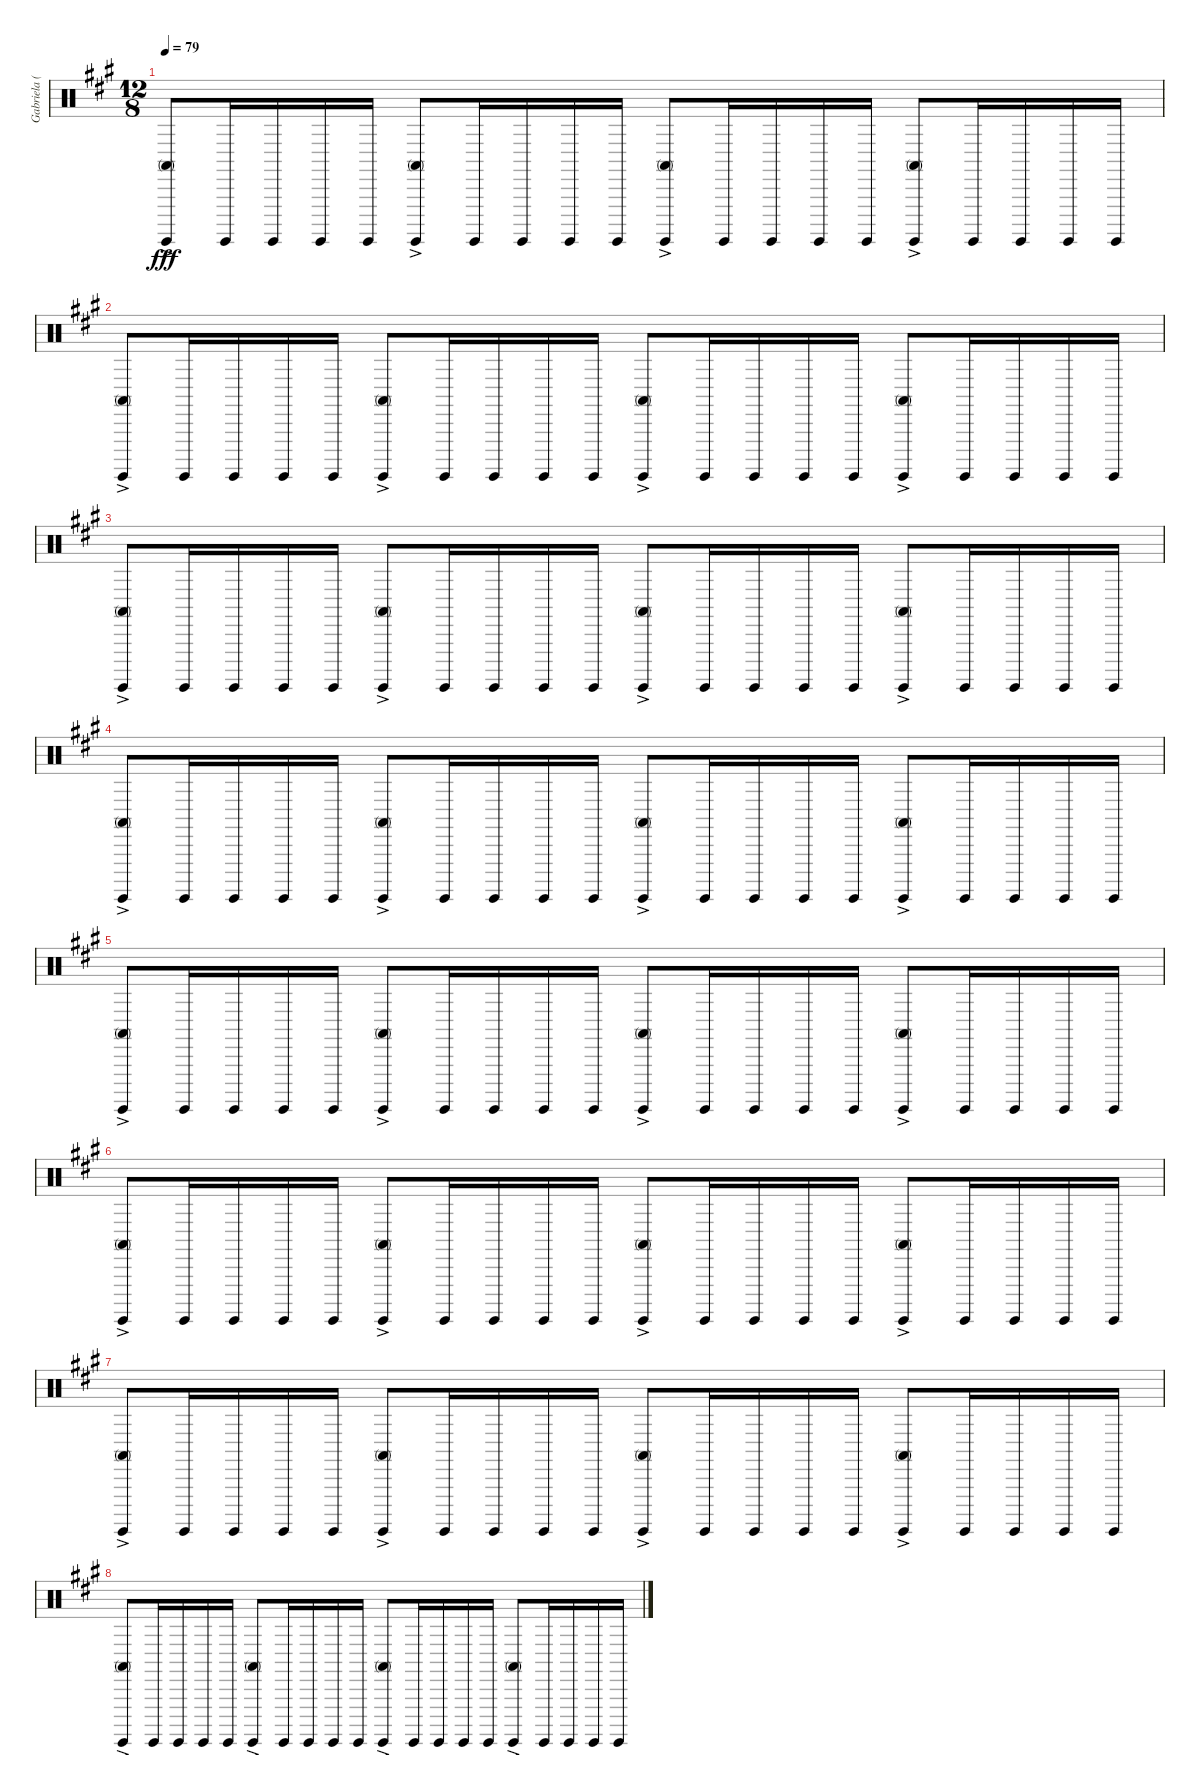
\track ("Gabriela (Percussion)" "Gabriela (") {instrument percussion}
\staff {score}
\articulation defaults
\ts (12 8)
\tempo 79
\clef neutral
\ks f#minor
("Conga high (mute)" "Surdo (hit)"{ac}).8{dy fff} "Surdo (hit)".16 "Surdo (hit)".16 "Surdo (hit)".16 "Surdo (hit)".16 ("Conga high (mute)" "Surdo (hit)"{ac}).8 "Surdo (hit)".16 "Surdo (hit)".16 "Surdo (hit)".16 "Surdo (hit)".16 ("Conga high (mute)" "Surdo (hit)"{ac}).8 "Surdo (hit)".16 "Surdo (hit)".16 "Surdo (hit)".16 "Surdo (hit)".16 ("Conga high (mute)" "Surdo (hit)"{ac}).8 "Surdo (hit)".16 "Surdo (hit)".16 "Surdo (hit)".16 "Surdo (hit)".16 |
("Conga high (mute)" "Surdo (hit)"{ac}).8 "Surdo (hit)".16 "Surdo (hit)".16 "Surdo (hit)".16 "Surdo (hit)".16 ("Conga high (mute)" "Surdo (hit)"{ac}).8 "Surdo (hit)".16 "Surdo (hit)".16 "Surdo (hit)".16 "Surdo (hit)".16 ("Conga high (mute)" "Surdo (hit)"{ac}).8 "Surdo (hit)".16 "Surdo (hit)".16 "Surdo (hit)".16 "Surdo (hit)".16 ("Conga high (mute)" "Surdo (hit)"{ac}).8 "Surdo (hit)".16 "Surdo (hit)".16 "Surdo (hit)".16 "Surdo (hit)".16 |
("Conga high (mute)" "Surdo (hit)"{ac}).8 "Surdo (hit)".16 "Surdo (hit)".16 "Surdo (hit)".16 "Surdo (hit)".16 ("Conga high (mute)" "Surdo (hit)"{ac}).8 "Surdo (hit)".16 "Surdo (hit)".16 "Surdo (hit)".16 "Surdo (hit)".16 ("Conga high (mute)" "Surdo (hit)"{ac}).8 "Surdo (hit)".16 "Surdo (hit)".16 "Surdo (hit)".16 "Surdo (hit)".16 ("Conga high (mute)" "Surdo (hit)"{ac}).8 "Surdo (hit)".16 "Surdo (hit)".16 "Surdo (hit)".16 "Surdo (hit)".16 |
("Conga high (mute)" "Surdo (hit)"{ac}).8 "Surdo (hit)".16 "Surdo (hit)".16 "Surdo (hit)".16 "Surdo (hit)".16 ("Conga high (mute)" "Surdo (hit)"{ac}).8 "Surdo (hit)".16 "Surdo (hit)".16 "Surdo (hit)".16 "Surdo (hit)".16 ("Conga high (mute)" "Surdo (hit)"{ac}).8 "Surdo (hit)".16 "Surdo (hit)".16 "Surdo (hit)".16 "Surdo (hit)".16 ("Conga high (mute)" "Surdo (hit)"{ac}).8 "Surdo (hit)".16 "Surdo (hit)".16 "Surdo (hit)".16 "Surdo (hit)".16 |
("Conga high (mute)" "Surdo (hit)"{ac}).8 "Surdo (hit)".16 "Surdo (hit)".16 "Surdo (hit)".16 "Surdo (hit)".16 ("Conga high (mute)" "Surdo (hit)"{ac}).8 "Surdo (hit)".16 "Surdo (hit)".16 "Surdo (hit)".16 "Surdo (hit)".16 ("Conga high (mute)" "Surdo (hit)"{ac}).8 "Surdo (hit)".16 "Surdo (hit)".16 "Surdo (hit)".16 "Surdo (hit)".16 ("Conga high (mute)" "Surdo (hit)"{ac}).8 "Surdo (hit)".16 "Surdo (hit)".16 "Surdo (hit)".16 "Surdo (hit)".16 |
("Conga high (mute)" "Surdo (hit)"{ac}).8 "Surdo (hit)".16 "Surdo (hit)".16 "Surdo (hit)".16 "Surdo (hit)".16 ("Conga high (mute)" "Surdo (hit)"{ac}).8 "Surdo (hit)".16 "Surdo (hit)".16 "Surdo (hit)".16 "Surdo (hit)".16 ("Conga high (mute)" "Surdo (hit)"{ac}).8 "Surdo (hit)".16 "Surdo (hit)".16 "Surdo (hit)".16 "Surdo (hit)".16 ("Conga high (mute)" "Surdo (hit)"{ac}).8 "Surdo (hit)".16 "Surdo (hit)".16 "Surdo (hit)".16 "Surdo (hit)".16 |
("Conga high (mute)" "Surdo (hit)"{ac}).8 "Surdo (hit)".16 "Surdo (hit)".16 "Surdo (hit)".16 "Surdo (hit)".16 ("Conga high (mute)" "Surdo (hit)"{ac}).8 "Surdo (hit)".16 "Surdo (hit)".16 "Surdo (hit)".16 "Surdo (hit)".16 ("Conga high (mute)" "Surdo (hit)"{ac}).8 "Surdo (hit)".16 "Surdo (hit)".16 "Surdo (hit)".16 "Surdo (hit)".16 ("Conga high (mute)" "Surdo (hit)"{ac}).8 "Surdo (hit)".16 "Surdo (hit)".16 "Surdo (hit)".16 "Surdo (hit)".16 |
("Conga high (mute)" "Surdo (hit)"{ac}).8 "Surdo (hit)".16 "Surdo (hit)".16 "Surdo (hit)".16 "Surdo (hit)".16 ("Conga high (mute)" "Surdo (hit)"{ac}).8 "Surdo (hit)".16 "Surdo (hit)".16 "Surdo (hit)".16 "Surdo (hit)".16 ("Conga high (mute)" "Surdo (hit)"{ac}).8 "Surdo (hit)".16 "Surdo (hit)".16 "Surdo (hit)".16 "Surdo (hit)".16 ("Conga high (mute)" "Surdo (hit)"{ac}).8 "Surdo (hit)".16 "Surdo (hit)".16 "Surdo (hit)".16 "Surdo (hit)".16
